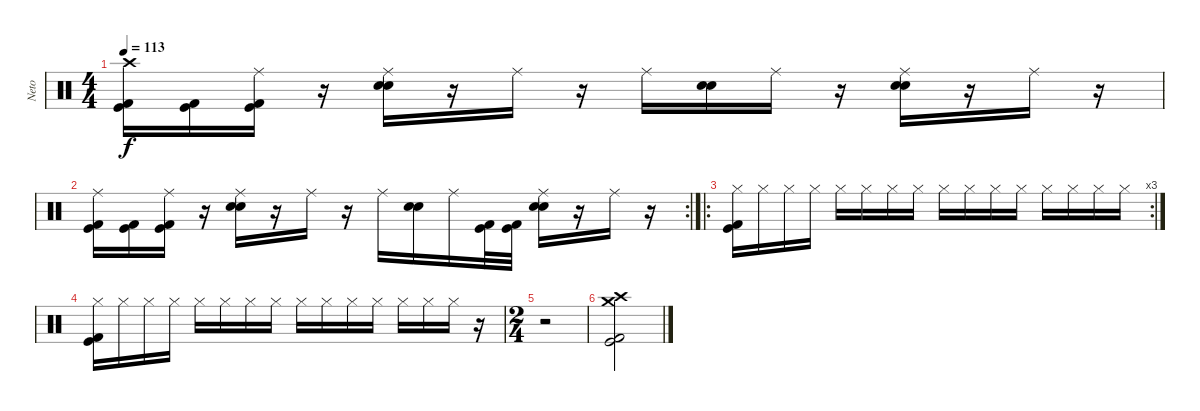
\track ("Neto" "Neto") {instrument percussion}
\staff {score}
\articulation defaults
\ts (4 4)
\tempo 113
\clef neutral
\ks c
("Crash high (hit)" "Kick (hit)" "Kick (hit) 2").16{dy f} ("Kick (hit)" "Kick (hit) 2").16 ("Ride (middle)" "Kick (hit)" "Kick (hit) 2").16 r.16 ("Ride (middle)" "Snare (hit) 2" "Snare (hit) 2").16 r.16 "Ride (middle)".16 r.16 "Ride (middle)".16 ("Snare (hit) 2" "Snare (hit) 2").16 "Ride (middle)".16 r.16 ("Ride (middle)" "Snare (hit) 2" "Snare (hit) 2").16 r.16 "Ride (middle)".16 r.16 |
\rc 2
("Ride (middle)" "Kick (hit)" "Kick (hit) 2").16 ("Kick (hit)" "Kick (hit) 2").16 ("Ride (middle)" "Kick (hit)" "Kick (hit) 2").16 r.16 ("Ride (middle)" "Snare (hit) 2" "Snare (hit) 2").16 r.16 "Ride (middle)".16 r.16 "Ride (middle)".16 ("Snare (hit) 2" "Snare (hit) 2").16 "Ride (middle)".16 ("Kick (hit)" "Kick (hit) 2").32 ("Kick (hit)" "Kick (hit) 2").32 ("Ride (middle)" "Snare (hit) 2" "Snare (hit) 2").16 r.16 "Ride (middle)".16 r.16 |
\ro
\rc 3
("Hi-Hat (closed)" "Kick (hit)" "Kick (hit) 2").16 "Hi-Hat (closed)".16 "Hi-Hat (closed)".16 "Hi-Hat (closed)".16 "Hi-Hat (closed)".16 "Hi-Hat (closed)".16 "Hi-Hat (closed)".16 "Hi-Hat (closed)".16 "Hi-Hat (closed)".16 "Hi-Hat (closed)".16 "Hi-Hat (closed)".16 "Hi-Hat (closed)".16 "Hi-Hat (closed)".16 "Hi-Hat (closed)".16 "Hi-Hat (closed)".16 "Hi-Hat (closed)".16 |
("Hi-Hat (closed)" "Kick (hit)" "Kick (hit) 2").16 "Hi-Hat (closed)".16 "Hi-Hat (closed)".16 "Hi-Hat (closed)".16 "Hi-Hat (closed)".16 "Hi-Hat (closed)".16 "Hi-Hat (closed)".16 "Hi-Hat (closed)".16 "Hi-Hat (closed)".16 "Hi-Hat (closed)".16 "Hi-Hat (closed)".16 "Hi-Hat (closed)".16 "Hi-Hat (closed)".16 "Hi-Hat (closed)".16 "Hi-Hat (closed)".16 r.16 |
\ts (2 4)
r.2 |
("Crash high (hit)" "Crash medium (hit)" "Kick (hit)" "Kick (hit) 2").2
